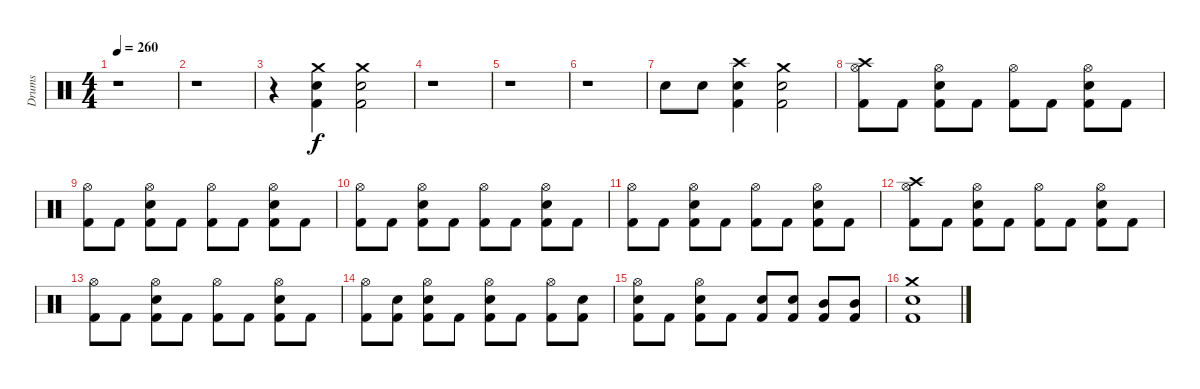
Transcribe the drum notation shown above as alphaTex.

\track ("Drums" "Drums") {instrument percussion}
\staff {score}
\articulation defaults
\ts (4 4)
\tempo 260
\clef neutral
\ks c
r.1{dy f} |
r.1 |
r.4 ("Crash medium (hit)" "Electric Snare (hit)" "Kick (hit) 2").4 ("Crash medium (hit)" "Electric Snare (hit)" "Kick (hit) 2").2 |
r.1 |
r.1 |
r.1 |
"Electric Snare (hit)".8 "Electric Snare (hit)".8 ("Crash high (hit)" "Electric Snare (hit)" "Kick (hit) 2").4 ("Crash medium (hit)" "Electric Snare (hit)" "Kick (hit) 2").2 |
("Crash high (hit)" "Hi-Hat (open)" "Kick (hit) 2").8 "Kick (hit) 2".8 ("Hi-Hat (open)" "Electric Snare (hit)" "Kick (hit) 2").8 "Kick (hit) 2".8 ("Hi-Hat (open)" "Kick (hit) 2").8 "Kick (hit) 2".8 ("Hi-Hat (open)" "Electric Snare (hit)" "Kick (hit) 2").8 "Kick (hit) 2".8 |
("Hi-Hat (open)" "Kick (hit) 2").8 "Kick (hit) 2".8 ("Hi-Hat (open)" "Electric Snare (hit)" "Kick (hit) 2").8 "Kick (hit) 2".8 ("Hi-Hat (open)" "Kick (hit) 2").8 "Kick (hit) 2".8 ("Hi-Hat (open)" "Electric Snare (hit)" "Kick (hit) 2").8 "Kick (hit) 2".8 |
("Hi-Hat (open)" "Kick (hit) 2").8 "Kick (hit) 2".8 ("Hi-Hat (open)" "Electric Snare (hit)" "Kick (hit) 2").8 "Kick (hit) 2".8 ("Hi-Hat (open)" "Kick (hit) 2").8 "Kick (hit) 2".8 ("Hi-Hat (open)" "Electric Snare (hit)" "Kick (hit) 2").8 "Kick (hit) 2".8 |
("Hi-Hat (open)" "Kick (hit) 2").8 "Kick (hit) 2".8 ("Hi-Hat (open)" "Electric Snare (hit)" "Kick (hit) 2").8 "Kick (hit) 2".8 ("Hi-Hat (open)" "Kick (hit) 2").8 "Kick (hit) 2".8 ("Hi-Hat (open)" "Electric Snare (hit)" "Kick (hit) 2").8 "Kick (hit) 2".8 |
("Crash high (hit)" "Hi-Hat (open)" "Kick (hit) 2").8 "Kick (hit) 2".8 ("Hi-Hat (open)" "Electric Snare (hit)" "Kick (hit) 2").8 "Kick (hit) 2".8 ("Hi-Hat (open)" "Kick (hit) 2").8 "Kick (hit) 2".8 ("Hi-Hat (open)" "Electric Snare (hit)" "Kick (hit) 2").8 "Kick (hit) 2".8 |
("Hi-Hat (open)" "Kick (hit) 2").8 "Kick (hit) 2".8 ("Hi-Hat (open)" "Electric Snare (hit)" "Kick (hit) 2").8 "Kick (hit) 2".8 ("Hi-Hat (open)" "Kick (hit) 2").8 "Kick (hit) 2".8 ("Hi-Hat (open)" "Electric Snare (hit)" "Kick (hit) 2").8 "Kick (hit) 2".8 |
("Hi-Hat (open)" "Kick (hit) 2").8 ("Electric Snare (hit)" "Kick (hit) 2").8 ("Hi-Hat (open)" "Electric Snare (hit)" "Kick (hit) 2").8 "Kick (hit) 2".8 ("Hi-Hat (open)" "Electric Snare (hit)" "Kick (hit) 2").8 "Kick (hit) 2".8 ("Hi-Hat (open)" "Kick (hit) 2").8 ("Electric Snare (hit)" "Kick (hit) 2").8 |
("Hi-Hat (open)" "Electric Snare (hit)" "Kick (hit) 2").8 "Kick (hit) 2".8 ("Hi-Hat (open)" "Electric Snare (hit)" "Kick (hit) 2").8 "Kick (hit) 2".8 ("Electric Snare (hit)" "Kick (hit) 2").8 ("Electric Snare (hit)" "Kick (hit) 2").8 ("Mid Tom (hit)" "Kick (hit) 2").8 ("Mid Tom (hit)" "Kick (hit) 2").8 |
("Crash medium (hit)" "Electric Snare (hit)" "Kick (hit) 2").1
